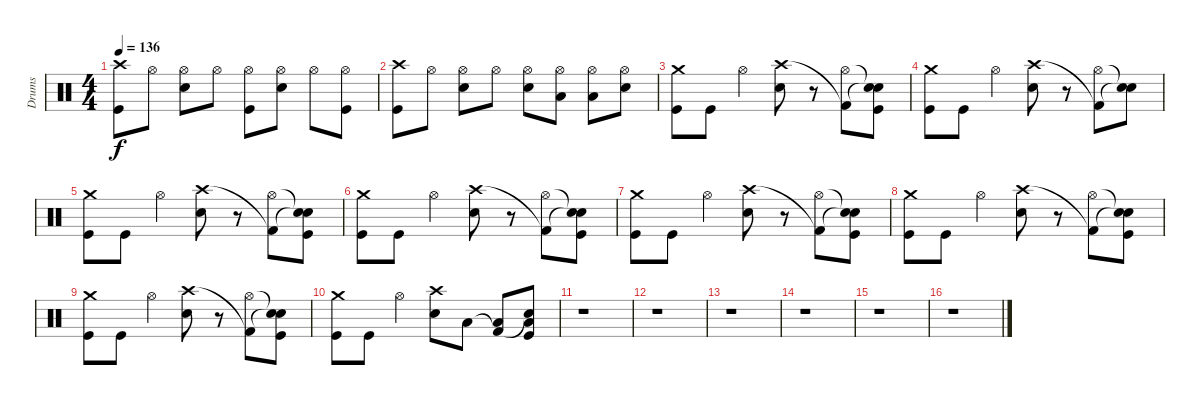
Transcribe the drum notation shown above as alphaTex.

\track ("Drums" "Drums") {instrument percussion}
\staff {score}
\articulation defaults
\ts (4 4)
\tempo 136
\clef neutral
\ks c
("Crash high (hit)" "Kick (hit)").8{dy f} "Hi-Hat (open)".8 ("Hi-Hat (open)" "Electric Snare (hit)").8 "Hi-Hat (open)".8 ("Hi-Hat (open)" "Kick (hit)").8 ("Hi-Hat (open)" "Electric Snare (hit)").8 "Hi-Hat (open)".8 ("Hi-Hat (open)" "Kick (hit)").8 |
("Crash high (hit)" "Kick (hit)").8 "Hi-Hat (open)".8 ("Hi-Hat (open)" "Electric Snare (hit)").8 "Hi-Hat (open)".8 ("Hi-Hat (open)" "Electric Snare (hit)").8 ("Hi-Hat (open)" "Low Tom (hit)").8 ("Hi-Hat (open)" "Low Tom (hit)").8 ("Hi-Hat (open)" "Electric Snare (hit)").8 |
("Crash medium (hit)" "Kick (hit)").8 "Kick (hit)".8 "Hi-Hat (open)".4 ("Crash high (hit)" "Electric Snare (hit)").8 r.8 ("Kick (hit) 2"{t} "Hi-Hat (open)").8 ("Snare (hit)"{t} "Snare (hit)"{t} "Kick (hit)").8 |
("Crash medium (hit)" "Kick (hit)").8 "Kick (hit)".8 "Hi-Hat (open)".4 ("Crash high (hit)" "Electric Snare (hit)").8 r.8 ("Kick (hit) 2"{t} "Hi-Hat (open)").8 ("Snare (hit)"{t} "Snare (hit)"{t}).8 |
("Crash medium (hit)" "Kick (hit)").8 "Kick (hit)".8 "Hi-Hat (open)".4 ("Crash high (hit)" "Electric Snare (hit)").8 r.8 ("Kick (hit) 2"{t} "Hi-Hat (open)").8 ("Snare (hit)"{t} "Snare (hit)"{t} "Kick (hit)").8 |
("Crash medium (hit)" "Kick (hit)").8 "Kick (hit)".8 "Hi-Hat (open)".4 ("Crash high (hit)" "Electric Snare (hit)").8 r.8 ("Kick (hit) 2"{t} "Hi-Hat (open)").8 ("Snare (hit)"{t} "Snare (hit)"{t} "Kick (hit)").8 |
("Crash medium (hit)" "Kick (hit)").8 "Kick (hit)".8 "Hi-Hat (open)".4 ("Crash high (hit)" "Electric Snare (hit)").8 r.8 ("Kick (hit) 2"{t} "Hi-Hat (open)").8 ("Snare (hit)"{t} "Snare (hit)"{t} "Kick (hit)").8 |
("Crash medium (hit)" "Kick (hit)").8 "Kick (hit)".8 "Hi-Hat (open)".4 ("Crash high (hit)" "Electric Snare (hit)").8 r.8 ("Kick (hit) 2"{t} "Hi-Hat (open)").8 ("Snare (hit)"{t} "Snare (hit)"{t} "Kick (hit)").8 |
("Crash medium (hit)" "Kick (hit)").8 "Kick (hit)".8 "Hi-Hat (open)".4 ("Crash high (hit)" "Electric Snare (hit)").8 r.8 ("Kick (hit) 2"{t} "Hi-Hat (open)").8 ("Snare (hit)"{t} "Snare (hit)"{t} "Kick (hit)").8 |
("Crash medium (hit)" "Kick (hit)").8 "Kick (hit)".8 "Hi-Hat (open)".4 ("Crash high (hit)" "Electric Snare (hit)").8 "Low Tom (hit)".8 ("Kick (hit) 2"{t} "Low Tom (hit)").8 ("Snare (hit)"{t} "Low Tom (hit)" "Kick (hit)").8 |
r.1 |
r.1 |
r.1 |
r.1 |
r.1 |
r.1
